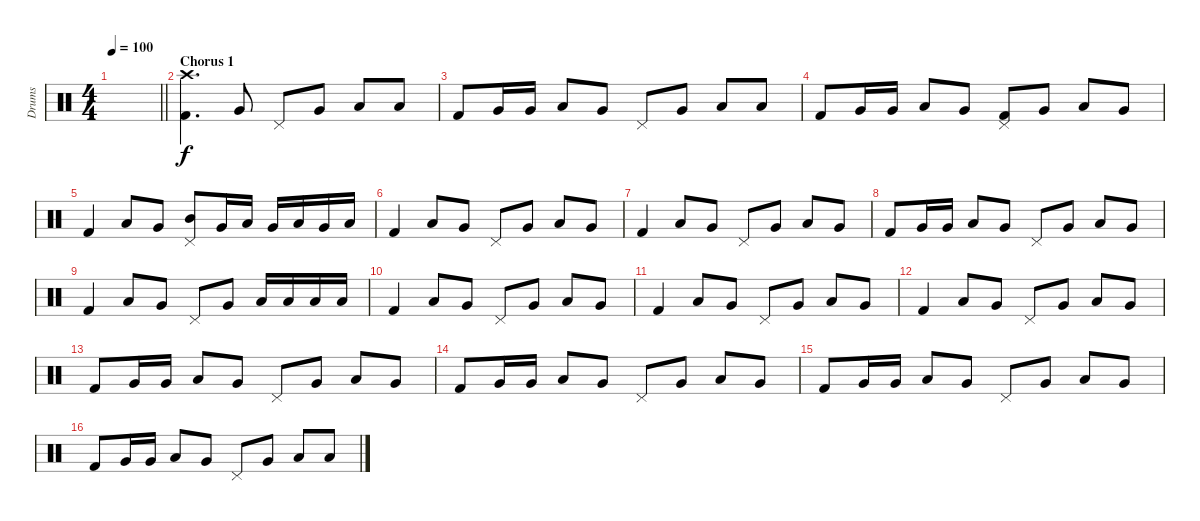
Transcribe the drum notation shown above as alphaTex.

\track ("Drums" "Drums") {instrument percussion}
\staff {score}
\articulation defaults
\ts (4 4)
\tempo 100
\clef neutral
\barLineRight lightlight
\ks c
|
\section ("" "Chorus 1")
("Crash high (hit)" "Kick (hit) 2").4{d} "Very Low Tom (hit)".8 "Pedal Hi-Hat (hit)".8 "Very Low Tom (hit)".8 "Low Tom (hit)".8 "Low Tom (hit)".8 |
"Kick (hit) 2".8 "Very Low Tom (hit)".16 "Very Low Tom (hit)".16 "Low Tom (hit)".8 "Very Low Tom (hit)".8 "Pedal Hi-Hat (hit)".8 "Very Low Tom (hit)".8 "Low Tom (hit)".8 "Low Tom (hit)".8 |
"Kick (hit) 2".8 "Very Low Tom (hit)".16 "Very Low Tom (hit)".16 "Low Tom (hit)".8 "Very Low Tom (hit)".8 ("Pedal Hi-Hat (hit)" "Kick (hit) 2").8 "Very Low Tom (hit)".8 "Low Tom (hit)".8 "Very Low Tom (hit)".8 |
"Kick (hit) 2".4 "Low Tom (hit)".8 "Very Low Tom (hit)".8 ("Pedal Hi-Hat (hit)" "Mid Tom (hit)").8 "Very Low Tom (hit)".16 "Low Tom (hit)".16 "Very Low Tom (hit)".16 "Low Tom (hit)".16 "Very Low Tom (hit)".16 "Low Tom (hit)".16 |
"Kick (hit) 2".4 "Low Tom (hit)".8 "Very Low Tom (hit)".8 "Pedal Hi-Hat (hit)".8 "Very Low Tom (hit)".8 "Low Tom (hit)".8 "Very Low Tom (hit)".8 |
"Kick (hit) 2".4 "Low Tom (hit)".8 "Very Low Tom (hit)".8 "Pedal Hi-Hat (hit)".8 "Very Low Tom (hit)".8 "Low Tom (hit)".8 "Very Low Tom (hit)".8 |
"Kick (hit) 2".8 "Very Low Tom (hit)".16 "Very Low Tom (hit)".16 "Low Tom (hit)".8 "Very Low Tom (hit)".8 "Pedal Hi-Hat (hit)".8 "Very Low Tom (hit)".8 "Low Tom (hit)".8 "Very Low Tom (hit)".8 |
"Kick (hit) 2".4 "Low Tom (hit)".8 "Very Low Tom (hit)".8 "Pedal Hi-Hat (hit)".8 "Very Low Tom (hit)".8 "Low Tom (hit)".16 "Low Tom (hit)".16 "Low Tom (hit)".16 "Low Tom (hit)".16 |
"Kick (hit) 2".4 "Low Tom (hit)".8 "Very Low Tom (hit)".8 "Pedal Hi-Hat (hit)".8 "Very Low Tom (hit)".8 "Low Tom (hit)".8 "Very Low Tom (hit)".8 |
"Kick (hit) 2".4 "Low Tom (hit)".8 "Very Low Tom (hit)".8 "Pedal Hi-Hat (hit)".8 "Very Low Tom (hit)".8 "Low Tom (hit)".8 "Very Low Tom (hit)".8 |
"Kick (hit) 2".4 "Low Tom (hit)".8 "Very Low Tom (hit)".8 "Pedal Hi-Hat (hit)".8 "Very Low Tom (hit)".8 "Low Tom (hit)".8 "Very Low Tom (hit)".8 |
"Kick (hit) 2".8 "Very Low Tom (hit)".16 "Very Low Tom (hit)".16 "Low Tom (hit)".8 "Very Low Tom (hit)".8 "Pedal Hi-Hat (hit)".8 "Very Low Tom (hit)".8 "Low Tom (hit)".8 "Very Low Tom (hit)".8 |
"Kick (hit) 2".8 "Very Low Tom (hit)".16 "Very Low Tom (hit)".16 "Low Tom (hit)".8 "Very Low Tom (hit)".8 "Pedal Hi-Hat (hit)".8 "Very Low Tom (hit)".8 "Low Tom (hit)".8 "Very Low Tom (hit)".8 |
"Kick (hit) 2".8 "Very Low Tom (hit)".16 "Very Low Tom (hit)".16 "Low Tom (hit)".8 "Very Low Tom (hit)".8 "Pedal Hi-Hat (hit)".8 "Very Low Tom (hit)".8 "Low Tom (hit)".8 "Very Low Tom (hit)".8 |
"Kick (hit) 2".8 "Very Low Tom (hit)".16 "Very Low Tom (hit)".16 "Low Tom (hit)".8 "Very Low Tom (hit)".8 "Pedal Hi-Hat (hit)".8 "Very Low Tom (hit)".8 "Low Tom (hit)".8 "Low Tom (hit)".8
